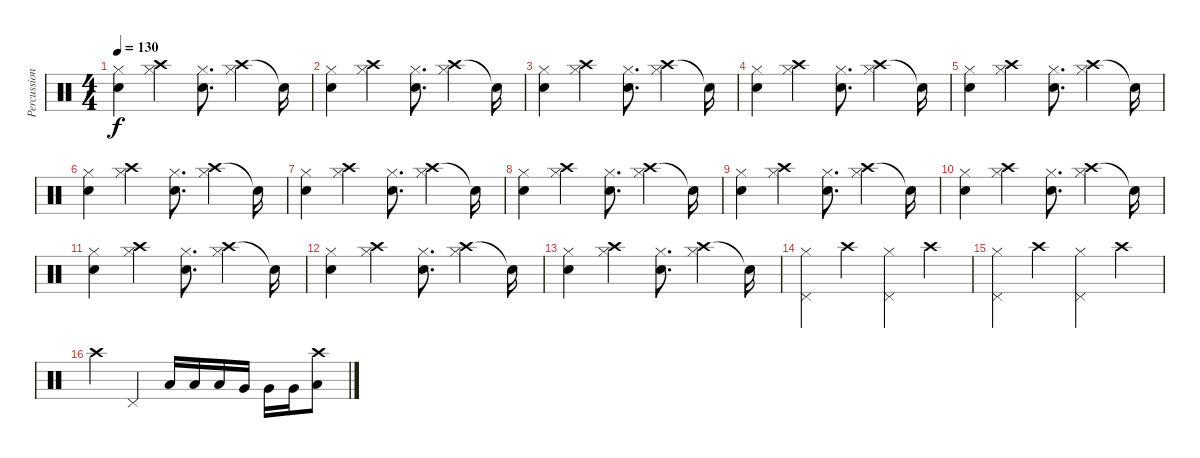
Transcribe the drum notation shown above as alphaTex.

\track ("Percussion" "Percussion") {instrument percussion}
\staff {score}
\articulation defaults
\ts (4 4)
\tempo 130
\clef neutral
\ks c
("Snare (hit) 2" "Hi-Hat (closed)").4{dy f volume 13} ("Crash high (hit)" "Hi-Hat (closed)").4 ("Snare (hit) 2" "Hi-Hat (closed)").8{d} ("Crash high (hit)" "Hi-Hat (closed)").4 "Snare (hit)"{t}.16 |
("Snare (hit) 2" "Hi-Hat (closed)").4{volume 13} ("Crash high (hit)" "Hi-Hat (closed)").4 ("Snare (hit) 2" "Hi-Hat (closed)").8{d} ("Crash high (hit)" "Hi-Hat (closed)").4 "Snare (hit)"{t}.16 |
("Snare (hit) 2" "Hi-Hat (closed)").4{volume 13} ("Crash high (hit)" "Hi-Hat (closed)").4 ("Snare (hit) 2" "Hi-Hat (closed)").8{d} ("Crash high (hit)" "Hi-Hat (closed)").4 "Snare (hit)"{t}.16 |
("Snare (hit) 2" "Hi-Hat (closed)").4{volume 13} ("Crash high (hit)" "Hi-Hat (closed)").4 ("Snare (hit) 2" "Hi-Hat (closed)").8{d} ("Crash high (hit)" "Hi-Hat (closed)").4 "Snare (hit)"{t}.16 |
("Snare (hit) 2" "Hi-Hat (closed)").4{volume 13} ("Crash high (hit)" "Hi-Hat (closed)").4 ("Snare (hit) 2" "Hi-Hat (closed)").8{d} ("Crash high (hit)" "Hi-Hat (closed)").4 "Snare (hit)"{t}.16 |
("Snare (hit) 2" "Hi-Hat (closed)").4{volume 13} ("Crash high (hit)" "Hi-Hat (closed)").4 ("Snare (hit) 2" "Hi-Hat (closed)").8{d} ("Crash high (hit)" "Hi-Hat (closed)").4 "Snare (hit)"{t}.16 |
("Snare (hit) 2" "Hi-Hat (closed)").4{volume 13} ("Crash high (hit)" "Hi-Hat (closed)").4 ("Snare (hit) 2" "Hi-Hat (closed)").8{d} ("Crash high (hit)" "Hi-Hat (closed)").4 "Snare (hit)"{t}.16 |
("Snare (hit) 2" "Hi-Hat (closed)").4{volume 13} ("Crash high (hit)" "Hi-Hat (closed)").4 ("Snare (hit) 2" "Hi-Hat (closed)").8{d} ("Crash high (hit)" "Hi-Hat (closed)").4 "Snare (hit)"{t}.16 |
("Snare (hit) 2" "Hi-Hat (closed)").4{volume 13} ("Crash high (hit)" "Hi-Hat (closed)").4 ("Snare (hit) 2" "Hi-Hat (closed)").8{d} ("Crash high (hit)" "Hi-Hat (closed)").4 "Snare (hit)"{t}.16 |
("Snare (hit) 2" "Hi-Hat (closed)").4{volume 13} ("Crash high (hit)" "Hi-Hat (closed)").4 ("Snare (hit) 2" "Hi-Hat (closed)").8{d} ("Crash high (hit)" "Hi-Hat (closed)").4 "Snare (hit)"{t}.16 |
("Snare (hit) 2" "Hi-Hat (closed)").4{volume 13} ("Crash high (hit)" "Hi-Hat (closed)").4 ("Snare (hit) 2" "Hi-Hat (closed)").8{d} ("Crash high (hit)" "Hi-Hat (closed)").4 "Snare (hit)"{t}.16 |
("Snare (hit) 2" "Hi-Hat (closed)").4{volume 13} ("Crash high (hit)" "Hi-Hat (closed)").4 ("Snare (hit) 2" "Hi-Hat (closed)").8{d} ("Crash high (hit)" "Hi-Hat (closed)").4 "Snare (hit)"{t}.16 |
("Snare (hit) 2" "Hi-Hat (closed)").4{volume 13} ("Crash high (hit)" "Hi-Hat (closed)").4 ("Snare (hit) 2" "Hi-Hat (closed)").8{d} ("Crash high (hit)" "Hi-Hat (closed)").4 "Snare (hit)"{t}.16 |
("Hi-Hat (closed)" "Pedal Hi-Hat (hit)").4 "Crash high (hit)".4 ("Hi-Hat (closed)" "Pedal Hi-Hat (hit)").4 "Crash high (hit)".4 |
("Hi-Hat (closed)" "Pedal Hi-Hat (hit)").4 "Crash high (hit)".4 ("Hi-Hat (closed)" "Pedal Hi-Hat (hit)").4 "Crash high (hit)".4 |
"Crash high (hit)".4 "Pedal Hi-Hat (hit)".4 "Low Tom (hit)".16 "Low Tom (hit)".16 "Low Tom (hit)".16 "Very Low Tom (hit)".16 "Very Low Tom (hit)".16 "Very Low Tom (hit)".16 ("Crash high (hit)" "Low Floor Tom (hit)").8
